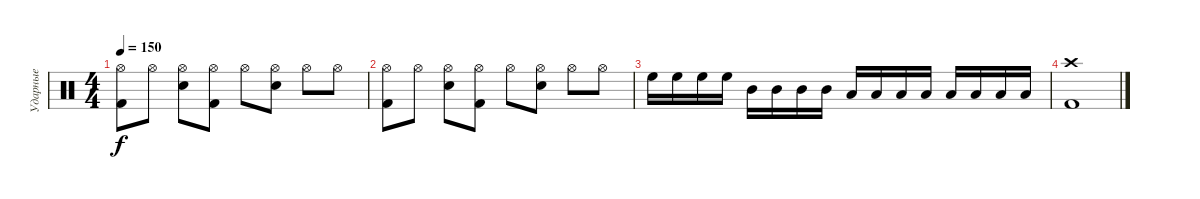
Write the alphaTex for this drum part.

\track ("Ударные" "Ударные") {instrument percussion}
\staff {score}
\articulation defaults
\ts (4 4)
\tempo 150
\clef neutral
\ks c
("Hi-Hat (open)" "Kick (hit) 2").8{dy f} "Hi-Hat (open)".8 ("Hi-Hat (open)" "Snare (hit) 2").8 ("Hi-Hat (open)" "Kick (hit) 2").8 "Hi-Hat (open)".8 ("Hi-Hat (open)" "Snare (hit) 2").8 "Hi-Hat (open)".8 "Hi-Hat (open)".8 |
("Hi-Hat (open)" "Kick (hit) 2").8 "Hi-Hat (open)".8 ("Hi-Hat (open)" "Snare (hit) 2").8 ("Hi-Hat (open)" "Kick (hit) 2").8 "Hi-Hat (open)".8 ("Hi-Hat (open)" "Snare (hit) 2").8 "Hi-Hat (open)".8 "Hi-Hat (open)".8 |
"High Floor Tom (hit)".16 "High Floor Tom (hit)".16 "High Floor Tom (hit)".16 "High Floor Tom (hit)".16 "Mid Tom (hit)".16 "Mid Tom (hit)".16 "Mid Tom (hit)".16 "Mid Tom (hit)".16 "Low Tom (hit)".16 "Low Tom (hit)".16 "Low Tom (hit)".16 "Low Tom (hit)".16 "Low Floor Tom (hit)".16 "Low Floor Tom (hit)".16 "Low Floor Tom (hit)".16 "Low Floor Tom (hit)".16 |
("Crash high (hit)" "Kick (hit) 2").1
